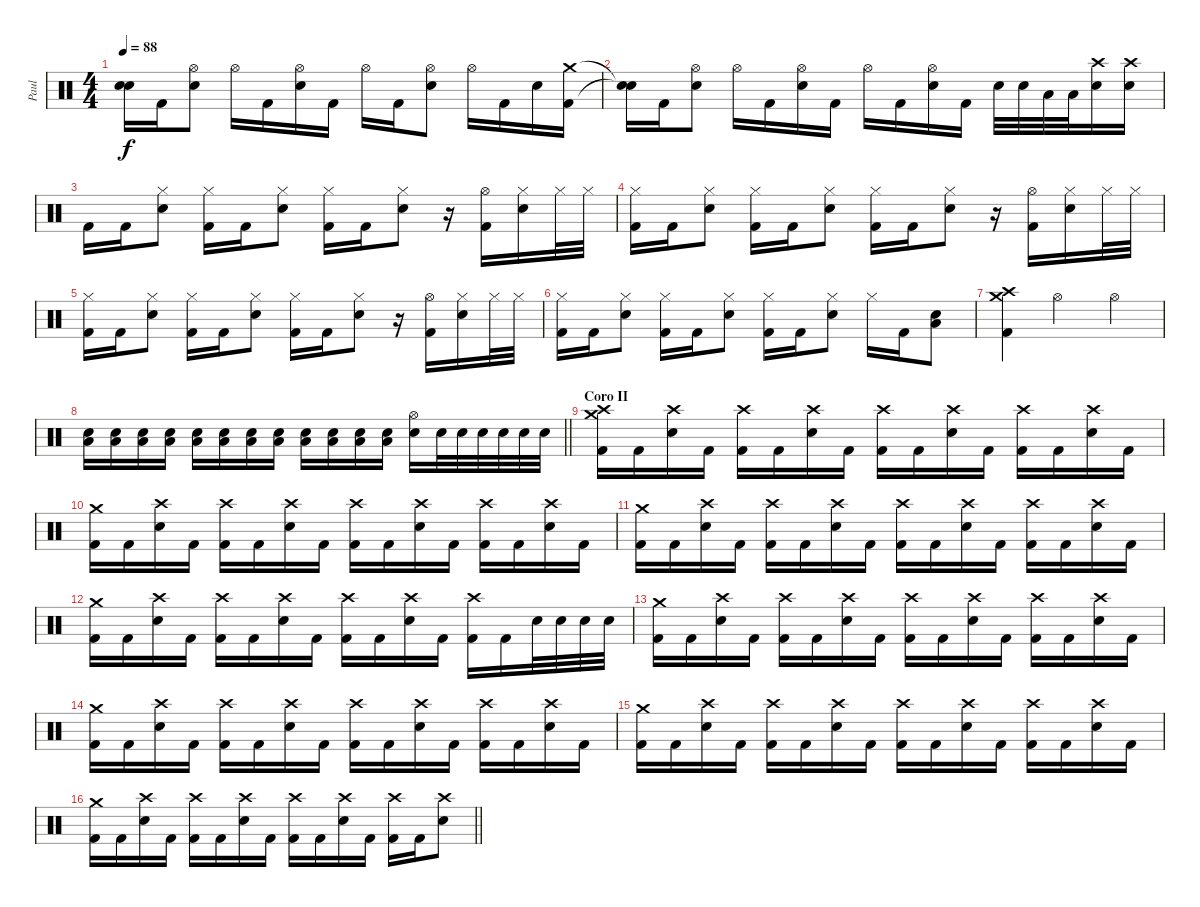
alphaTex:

\track ("Paul" "Paul") {instrument percussion}
\staff
\articulation defaults
\ts (4 4)
\tempo 88
\clef neutral
\ks c
("Snare (hit)"{t} "Snare (hit)"{t}).16{dy f} "Kick (hit) 2".16 ("Hi-Hat (open)" "Electric Snare (hit)").8 "Hi-Hat (open)".16 "Kick (hit) 2".16 ("Hi-Hat (open)" "Electric Snare (hit)").16 "Kick (hit) 2".16 "Hi-Hat (open)".16 "Kick (hit) 2".16 ("Hi-Hat (open)" "Electric Snare (hit)").8 "Hi-Hat (open)".16 "Kick (hit) 2".16 "Electric Snare (hit)".16 ("Crash medium (hit)" "Kick (hit) 2").16 |
("Snare (hit)"{t} "Snare (hit)"{t}).16 "Kick (hit) 2".16 ("Hi-Hat (open)" "Electric Snare (hit)").8 "Hi-Hat (open)".16 "Kick (hit) 2".16 ("Hi-Hat (open)" "Electric Snare (hit)").16 "Kick (hit) 2".16 "Hi-Hat (open)".16 "Kick (hit) 2".16 ("Hi-Hat (open)" "Electric Snare (hit)").16 "Kick (hit) 2".16 "Electric Snare (hit)".32 "Electric Snare (hit)".32 "Low Tom (hit)".32 "Low Tom (hit)".32 ("Crash high (hit)" "Electric Snare (hit)").16 ("Crash high (hit)" "Electric Snare (hit)").16 |
"Kick (hit) 2".16 "Kick (hit) 2".16 ("Hi-Hat (closed)" "Electric Snare (hit)").8 ("Hi-Hat (closed)" "Kick (hit) 2").16 "Kick (hit) 2".16 ("Hi-Hat (closed)" "Electric Snare (hit)").8 ("Hi-Hat (closed)" "Kick (hit) 2").16 "Kick (hit) 2".16 ("Hi-Hat (closed)" "Electric Snare (hit)").8 r.16 ("Hi-Hat (open)" "Kick (hit) 2").16 ("Hi-Hat (closed)" "Electric Snare (hit)").16 "Hi-Hat (closed)".32 "Hi-Hat (closed)".32 |
("Hi-Hat (closed)" "Kick (hit) 2").16 "Kick (hit) 2".16 ("Hi-Hat (closed)" "Electric Snare (hit)").8 ("Hi-Hat (closed)" "Kick (hit) 2").16 "Kick (hit) 2".16 ("Hi-Hat (closed)" "Electric Snare (hit)").8 ("Hi-Hat (closed)" "Kick (hit) 2").16 "Kick (hit) 2".16 ("Hi-Hat (closed)" "Electric Snare (hit)").8 r.16 ("Hi-Hat (open)" "Kick (hit) 2").16 ("Hi-Hat (closed)" "Electric Snare (hit)").16 "Hi-Hat (closed)".32 "Hi-Hat (closed)".32 |
("Hi-Hat (closed)" "Kick (hit) 2").16 "Kick (hit) 2".16 ("Hi-Hat (closed)" "Electric Snare (hit)").8 ("Hi-Hat (closed)" "Kick (hit) 2").16 "Kick (hit) 2".16 ("Hi-Hat (closed)" "Electric Snare (hit)").8 ("Hi-Hat (closed)" "Kick (hit) 2").16 "Kick (hit) 2".16 ("Hi-Hat (closed)" "Electric Snare (hit)").8 r.16 ("Hi-Hat (open)" "Kick (hit) 2").16 ("Hi-Hat (closed)" "Electric Snare (hit)").16 "Hi-Hat (closed)".32 "Hi-Hat (closed)".32 |
("Hi-Hat (closed)" "Kick (hit) 2").16 "Kick (hit) 2".16 ("Hi-Hat (closed)" "Electric Snare (hit)").8 ("Hi-Hat (closed)" "Kick (hit) 2").16 "Kick (hit) 2".16 ("Hi-Hat (closed)" "Electric Snare (hit)").8 ("Hi-Hat (closed)" "Kick (hit) 2").16 "Kick (hit) 2".16 ("Hi-Hat (closed)" "Electric Snare (hit)").8 "Hi-Hat (closed)".16 "Kick (hit) 2".16 ("Electric Snare (hit)" "Low Floor Tom (hit)").8 |
("Crash medium (hit)" "Crash high (hit)" "Kick (hit) 2").4 "Hi-Hat (open)".2 "Hi-Hat (open)".4 |
\barLineRight lightlight
("Electric Snare (hit)" "Low Floor Tom (hit)").16 ("Electric Snare (hit)" "Low Floor Tom (hit)").16 ("Electric Snare (hit)" "Low Floor Tom (hit)").16 ("Electric Snare (hit)" "Low Floor Tom (hit)").16 ("Electric Snare (hit)" "Low Floor Tom (hit)").16 ("Electric Snare (hit)" "Low Floor Tom (hit)").16 ("Electric Snare (hit)" "Low Floor Tom (hit)").16 ("Electric Snare (hit)" "Low Floor Tom (hit)").16 ("Electric Snare (hit)" "Low Floor Tom (hit)").16 ("Electric Snare (hit)" "Low Floor Tom (hit)").16 ("Electric Snare (hit)" "Low Floor Tom (hit)").16 ("Electric Snare (hit)" "Low Floor Tom (hit)").16 ("Hi-Hat (open)" "Electric Snare (hit)").16 "Electric Snare (hit)".32 "Electric Snare (hit)".32 "Electric Snare (hit)".32 "Electric Snare (hit)".32 "Electric Snare (hit)".32 "Electric Snare (hit)".32 |
\section ("" "Coro II")
("Crash medium (hit)" "Crash high (hit)" "Kick (hit) 2").16 "Kick (hit) 2".16 ("Crash high (hit)" "Electric Snare (hit)").16 "Kick (hit) 2".16 ("Crash high (hit)" "Kick (hit) 2").16 "Kick (hit) 2".16 ("Crash high (hit)" "Electric Snare (hit)").16 "Kick (hit) 2".16 ("Crash high (hit)" "Kick (hit) 2").16 "Kick (hit) 2".16 ("Crash high (hit)" "Electric Snare (hit)").16 "Kick (hit) 2".16 ("Crash high (hit)" "Kick (hit) 2").16 "Kick (hit) 2".16 ("Crash high (hit)" "Electric Snare (hit)").16 "Kick (hit) 2".16 |
("Crash medium (hit)" "Kick (hit) 2").16 "Kick (hit) 2".16 ("Crash high (hit)" "Electric Snare (hit)").16 "Kick (hit) 2".16 ("Crash high (hit)" "Kick (hit) 2").16 "Kick (hit) 2".16 ("Crash high (hit)" "Electric Snare (hit)").16 "Kick (hit) 2".16 ("Crash high (hit)" "Kick (hit) 2").16 "Kick (hit) 2".16 ("Crash high (hit)" "Electric Snare (hit)").16 "Kick (hit) 2".16 ("Crash high (hit)" "Kick (hit) 2").16 "Kick (hit) 2".16 ("Crash high (hit)" "Electric Snare (hit)").16 "Kick (hit) 2".16 |
("Crash medium (hit)" "Kick (hit) 2").16 "Kick (hit) 2".16 ("Crash high (hit)" "Electric Snare (hit)").16 "Kick (hit) 2".16 ("Crash high (hit)" "Kick (hit) 2").16 "Kick (hit) 2".16 ("Crash high (hit)" "Electric Snare (hit)").16 "Kick (hit) 2".16 ("Crash high (hit)" "Kick (hit) 2").16 "Kick (hit) 2".16 ("Crash high (hit)" "Electric Snare (hit)").16 "Kick (hit) 2".16 ("Crash high (hit)" "Kick (hit) 2").16 "Kick (hit) 2".16 ("Crash high (hit)" "Electric Snare (hit)").16 "Kick (hit) 2".16 |
("Crash medium (hit)" "Kick (hit) 2").16 "Kick (hit) 2".16 ("Crash high (hit)" "Electric Snare (hit)").16 "Kick (hit) 2".16 ("Crash high (hit)" "Kick (hit) 2").16 "Kick (hit) 2".16 ("Crash high (hit)" "Electric Snare (hit)").16 "Kick (hit) 2".16 ("Crash high (hit)" "Kick (hit) 2").16 "Kick (hit) 2".16 ("Crash high (hit)" "Electric Snare (hit)").16 "Kick (hit) 2".16 ("Crash high (hit)" "Kick (hit) 2").16 "Kick (hit) 2".16 "Electric Snare (hit)".32 "Electric Snare (hit)".32 "Electric Snare (hit)".32 "Electric Snare (hit)".32 |
("Crash medium (hit)" "Kick (hit) 2").16 "Kick (hit) 2".16 ("Crash high (hit)" "Electric Snare (hit)").16 "Kick (hit) 2".16 ("Crash high (hit)" "Kick (hit) 2").16 "Kick (hit) 2".16 ("Crash high (hit)" "Electric Snare (hit)").16 "Kick (hit) 2".16 ("Crash high (hit)" "Kick (hit) 2").16 "Kick (hit) 2".16 ("Crash high (hit)" "Electric Snare (hit)").16 "Kick (hit) 2".16 ("Crash high (hit)" "Kick (hit) 2").16 "Kick (hit) 2".16 ("Crash high (hit)" "Electric Snare (hit)").16 "Kick (hit) 2".16 |
("Crash medium (hit)" "Kick (hit) 2").16 "Kick (hit) 2".16 ("Crash high (hit)" "Electric Snare (hit)").16 "Kick (hit) 2".16 ("Crash high (hit)" "Kick (hit) 2").16 "Kick (hit) 2".16 ("Crash high (hit)" "Electric Snare (hit)").16 "Kick (hit) 2".16 ("Crash high (hit)" "Kick (hit) 2").16 "Kick (hit) 2".16 ("Crash high (hit)" "Electric Snare (hit)").16 "Kick (hit) 2".16 ("Crash high (hit)" "Kick (hit) 2").16 "Kick (hit) 2".16 ("Crash high (hit)" "Electric Snare (hit)").16 "Kick (hit) 2".16 |
("Crash medium (hit)" "Kick (hit) 2").16 "Kick (hit) 2".16 ("Crash high (hit)" "Electric Snare (hit)").16 "Kick (hit) 2".16 ("Crash high (hit)" "Kick (hit) 2").16 "Kick (hit) 2".16 ("Crash high (hit)" "Electric Snare (hit)").16 "Kick (hit) 2".16 ("Crash high (hit)" "Kick (hit) 2").16 "Kick (hit) 2".16 ("Crash high (hit)" "Electric Snare (hit)").16 "Kick (hit) 2".16 ("Crash high (hit)" "Kick (hit) 2").16 "Kick (hit) 2".16 ("Crash high (hit)" "Electric Snare (hit)").16 "Kick (hit) 2".16 |
\barLineRight lightlight
("Crash medium (hit)" "Kick (hit) 2").16 "Kick (hit) 2".16 ("Crash high (hit)" "Electric Snare (hit)").16 "Kick (hit) 2".16 ("Crash high (hit)" "Kick (hit) 2").16 "Kick (hit) 2".16 ("Crash high (hit)" "Electric Snare (hit)").16 "Kick (hit) 2".16 ("Crash high (hit)" "Kick (hit) 2").16 "Kick (hit) 2".16 ("Crash high (hit)" "Electric Snare (hit)").16 "Kick (hit) 2".16 ("Crash high (hit)" "Kick (hit) 2").16 "Kick (hit) 2".16 ("Crash high (hit)" "Electric Snare (hit)").8
